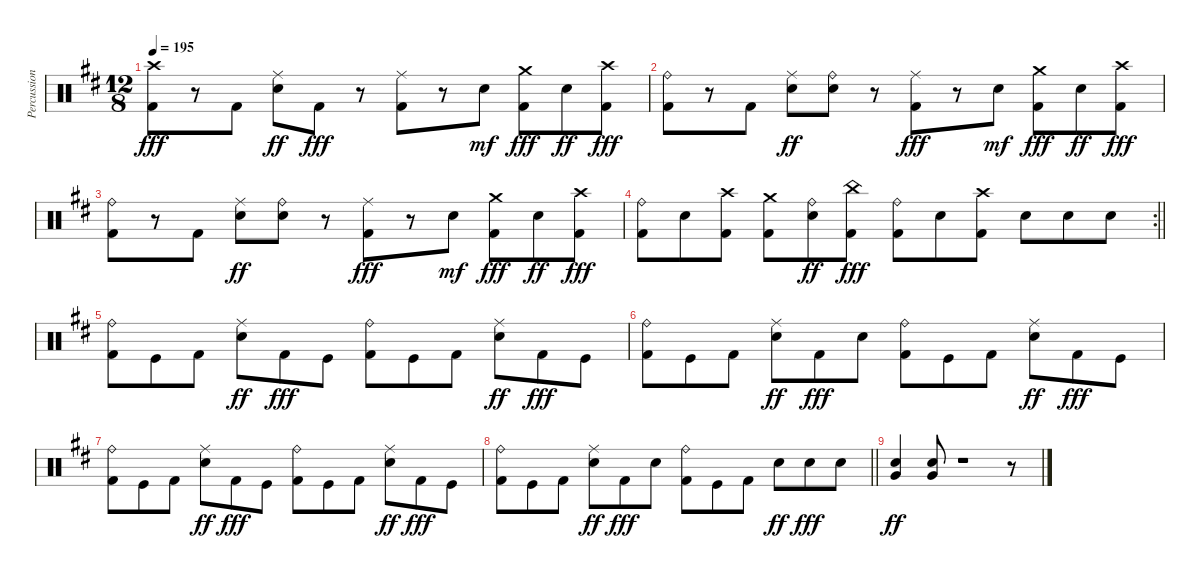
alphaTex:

\track ("Percussion" "Percussion") {instrument percussion}
\staff {score}
\articulation defaults
\ts (12 8)
\tempo 195
\clef neutral
\ks d
("Crash high (hit)" "Kick (hit) 2").8{dy fff} r.8 "Kick (hit) 2".8 ("Ride (middle)" "Snare (hit) 2").8{dy ff} "Kick (hit) 2".8{dy fff} r.8 ("Ride (middle)" "Kick (hit) 2").8 r.8 "Snare (hit) 2".8{dy mf} ("Crash medium (hit)" "Kick (hit) 2").8{dy fff} "Snare (hit) 2".8{dy ff} ("Crash high (hit)" "Kick (hit) 2").8{dy fff} |
("Ride (bell)" "Kick (hit) 2").8 r.8 "Kick (hit) 2".8 ("Ride (middle)" "Snare (hit) 2").8{dy ff} ("Ride (bell)" "Snare (hit) 2").8 r.8 ("Ride (middle)" "Kick (hit) 2").8{dy fff} r.8 "Snare (hit) 2".8{dy mf} ("Crash medium (hit)" "Kick (hit) 2").8{dy fff} "Snare (hit) 2".8{dy ff} ("Crash high (hit)" "Kick (hit) 2").8{dy fff} |
("Ride (bell)" "Kick (hit) 2").8 r.8 "Kick (hit) 2".8 ("Ride (middle)" "Snare (hit) 2").8{dy ff} ("Ride (bell)" "Snare (hit) 2").8 r.8 ("Ride (middle)" "Kick (hit) 2").8{dy fff} r.8 "Snare (hit) 2".8{dy mf} ("Crash medium (hit)" "Kick (hit) 2").8{dy fff} "Snare (hit) 2".8{dy ff} ("Crash high (hit)" "Kick (hit) 2").8{dy fff} |
\rc 2
\barLineRight lightlight
("Ride (bell)" "Kick (hit) 2").8 "Snare (hit) 2".8 ("Crash high (hit)" "Kick (hit) 2").8 ("Crash medium (hit)" "Kick (hit) 2").8 ("Ride (bell)" "Snare (hit) 2").8{dy ff} ("China (hit)" "Kick (hit) 2").8{dy fff} ("Ride (bell)" "Kick (hit) 2").8 "Snare (hit) 2".8 ("Crash high (hit)" "Kick (hit) 2").8 "Snare (hit) 2".8 "Snare (hit) 2".8 "Snare (hit) 2".8 |
("Ride (bell)" "Kick (hit) 2").8 "Kick (hit)".8 "Kick (hit) 2".8 ("Ride (middle)" "Snare (hit) 2").8{dy ff} "Kick (hit) 2".8{dy fff} "Kick (hit)".8 ("Ride (bell)" "Kick (hit) 2").8 "Kick (hit)".8 "Kick (hit) 2".8 ("Ride (middle)" "Snare (hit) 2").8{dy ff} "Kick (hit) 2".8{dy fff} "Kick (hit)".8 |
("Ride (bell)" "Kick (hit) 2").8 "Kick (hit)".8 "Kick (hit) 2".8 ("Ride (middle)" "Snare (hit) 2").8{dy ff} "Kick (hit) 2".8{dy fff} "Snare (hit) 2".8 ("Ride (bell)" "Kick (hit) 2").8 "Kick (hit)".8 "Kick (hit) 2".8 ("Ride (middle)" "Snare (hit) 2").8{dy ff} "Kick (hit) 2".8{dy fff} "Kick (hit)".8 |
("Ride (bell)" "Kick (hit) 2").8 "Kick (hit)".8 "Kick (hit) 2".8 ("Ride (middle)" "Snare (hit) 2").8{dy ff} "Kick (hit) 2".8{dy fff} "Kick (hit)".8 ("Ride (bell)" "Kick (hit) 2").8 "Kick (hit)".8 "Kick (hit) 2".8 ("Ride (middle)" "Snare (hit) 2").8{dy ff} "Kick (hit) 2".8{dy fff} "Kick (hit)".8 |
\barLineRight lightlight
("Ride (bell)" "Kick (hit) 2").8 "Kick (hit)".8 "Kick (hit) 2".8 ("Ride (middle)" "Snare (hit) 2").8{dy ff} "Kick (hit) 2".8{dy fff} "Snare (hit) 2".8 ("Ride (bell)" "Kick (hit) 2").8 "Kick (hit)".8 "Kick (hit) 2".8 "Snare (hit) 2".8{dy ff} "Snare (hit) 2".8{dy fff} "Snare (hit) 2".8 |
("Very Low Tom (hit)" "Snare (hit) 2").4{dy ff} ("Very Low Tom (hit)" "Snare (hit) 2").8 r.1 r.8
